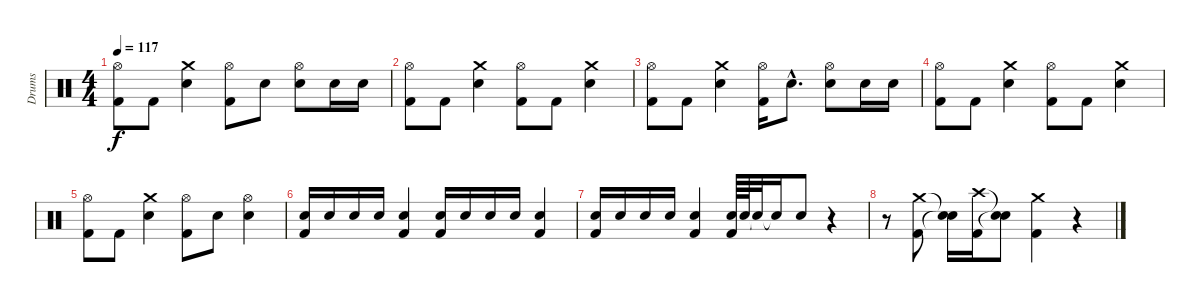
\track ("Drums" "Drums") {instrument percussion}
\staff {score}
\articulation defaults
\ts (4 4)
\tempo 117
\clef neutral
\ks c
("Hi-Hat (open)" "Kick (hit) 2").8{dy f} "Kick (hit) 2".8 ("Crash medium (hit)" "Snare (hit) 2").4 ("Hi-Hat (open)" "Kick (hit) 2").8 "Snare (hit) 2".8 ("Hi-Hat (open)" "Snare (hit) 2").8 "Snare (hit) 2".16 "Snare (hit) 2".16 |
("Hi-Hat (open)" "Kick (hit) 2").8 "Kick (hit) 2".8 ("Crash medium (hit)" "Snare (hit) 2").4 ("Hi-Hat (open)" "Kick (hit) 2").8 "Kick (hit) 2".8 ("Crash medium (hit)" "Snare (hit) 2").4 |
("Hi-Hat (open)" "Kick (hit) 2").8 "Kick (hit) 2".8 ("Crash medium (hit)" "Snare (hit) 2").4 ("Hi-Hat (open)" "Kick (hit) 2").16 "Snare (hit) 2"{hac}.8{d} ("Hi-Hat (open)" "Snare (hit) 2").8 "Snare (hit) 2".16 "Snare (hit) 2".16 |
("Hi-Hat (open)" "Kick (hit) 2").8 "Kick (hit) 2".8 ("Crash medium (hit)" "Snare (hit) 2").4 ("Hi-Hat (open)" "Kick (hit) 2").8 "Kick (hit) 2".8 ("Crash medium (hit)" "Snare (hit) 2").4 |
("Hi-Hat (open)" "Kick (hit) 2").8 "Kick (hit) 2".8 ("Crash medium (hit)" "Snare (hit) 2").4 ("Hi-Hat (open)" "Kick (hit) 2").8 "Snare (hit) 2".8 ("Hi-Hat (open)" "Snare (hit) 2").4 |
("Snare (hit) 2" "Kick (hit) 2").16 "Snare (hit) 2".16 "Snare (hit) 2".16 "Snare (hit) 2".16 ("Snare (hit) 2" "Kick (hit) 2").4 ("Snare (hit) 2" "Kick (hit) 2").16 "Snare (hit) 2".16 "Snare (hit) 2".16 "Snare (hit) 2".16 ("Snare (hit) 2" "Kick (hit) 2").4 |
("Snare (hit) 2" "Kick (hit) 2").16 "Snare (hit) 2".16 "Snare (hit) 2".16 "Snare (hit) 2".16 ("Snare (hit) 2" "Kick (hit) 2").4 ("Snare (hit) 2" "Kick (hit) 2").64 "Snare (hit) 2".64 "Snare (hit)"{t}.32 "Snare (hit)"{t}.16 "Snare (hit) 2".8 r.4 |
r.8 ("Crash medium (hit)" "Kick (hit) 2").8 ("Snare (hit)"{t} "Snare (hit)"{t}).16 ("Crash high (hit)" "Kick (hit) 2").16 ("Snare (hit)"{t} "Snare (hit)"{t}).8 ("Crash medium (hit)" "Kick (hit) 2").4 r.4
